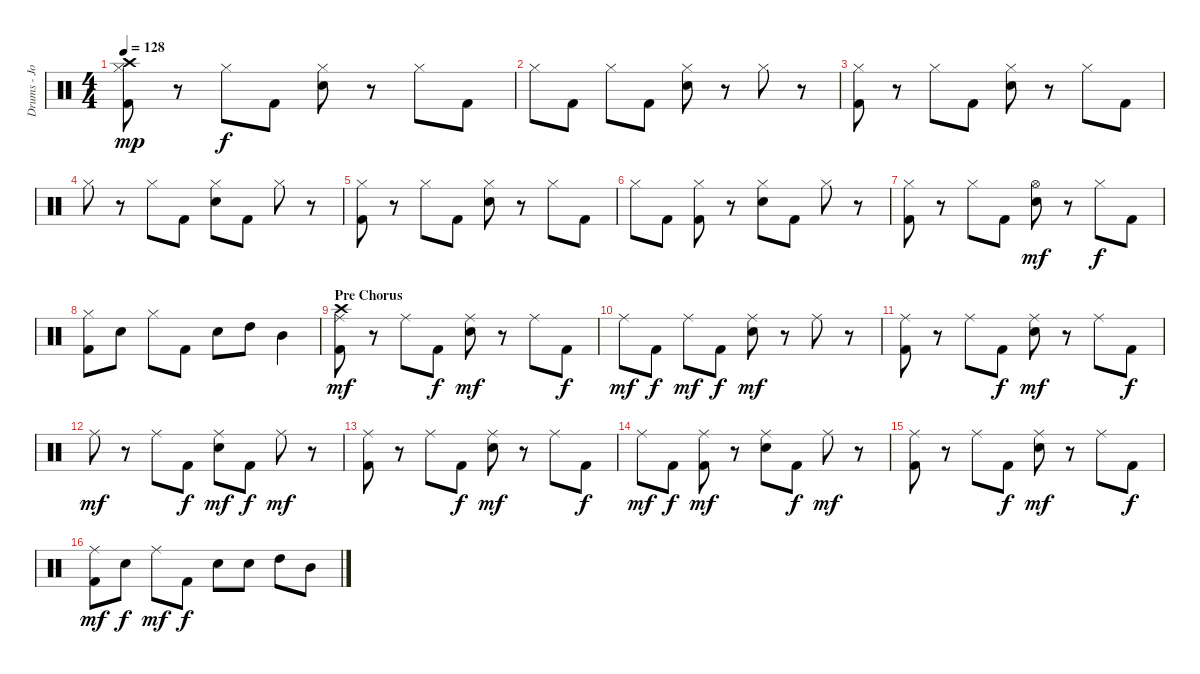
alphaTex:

\track ("Drums - John Humphrey" "Drums - Jo") {instrument percussion}
\staff {score}
\articulation defaults
\ts (4 4)
\tempo 128
\clef neutral
\ks c
("Crash high (hit)" "Hi-Hat (closed)" "Kick (hit) 2").8{dy mp} r.8 "Hi-Hat (closed)".8{dy f} "Kick (hit) 2".8 ("Hi-Hat (closed)" "Electric Snare (hit)").8 r.8 "Hi-Hat (closed)".8 "Kick (hit) 2".8 |
"Hi-Hat (closed)".8 "Kick (hit) 2".8 "Hi-Hat (closed)".8 "Kick (hit) 2".8 ("Hi-Hat (closed)" "Electric Snare (hit)").8 r.8 "Hi-Hat (closed)".8 r.8 |
("Hi-Hat (closed)" "Kick (hit) 2").8 r.8 "Hi-Hat (closed)".8 "Kick (hit) 2".8 ("Hi-Hat (closed)" "Electric Snare (hit)").8 r.8 "Hi-Hat (closed)".8 "Kick (hit) 2".8 |
"Hi-Hat (closed)".8 r.8 "Hi-Hat (closed)".8 "Kick (hit) 2".8 ("Hi-Hat (closed)" "Electric Snare (hit)").8 "Kick (hit) 2".8 "Hi-Hat (closed)".8 r.8 |
("Hi-Hat (closed)" "Kick (hit) 2").8 r.8 "Hi-Hat (closed)".8 "Kick (hit) 2".8 ("Hi-Hat (closed)" "Electric Snare (hit)").8 r.8 "Hi-Hat (closed)".8 "Kick (hit) 2".8 |
"Hi-Hat (closed)".8 "Kick (hit) 2".8 ("Hi-Hat (closed)" "Kick (hit) 2").8 r.8 ("Hi-Hat (closed)" "Electric Snare (hit)").8 "Kick (hit) 2".8 "Hi-Hat (closed)".8 r.8 |
("Hi-Hat (closed)" "Kick (hit) 2").8 r.8 "Hi-Hat (closed)".8 "Kick (hit) 2".8 ("Hi-Hat (open)" "Electric Snare (hit)").8{dy mf} r.8 "Hi-Hat (closed)".8{dy f} "Kick (hit) 2".8 |
("Hi-Hat (closed)" "Kick (hit) 2").8 "Electric Snare (hit)".8 "Hi-Hat (closed)".8 "Kick (hit) 2".8 "Electric Snare (hit)".8 "High Tom (hit)".8 "Mid Tom (hit)".4 |
\section ("" "Pre Chorus")
("Crash high (hit)" "Ride (middle)" "Kick (hit) 2").8{dy mf} r.8 "Ride (middle)".8 "Kick (hit) 2".8{dy f} ("Ride (middle)" "Electric Snare (hit)").8{dy mf} r.8 "Ride (middle)".8 "Kick (hit) 2".8{dy f} |
"Ride (middle)".8{dy mf} "Kick (hit) 2".8{dy f} "Ride (middle)".8{dy mf} "Kick (hit) 2".8{dy f} ("Ride (middle)" "Electric Snare (hit)").8{dy mf} r.8 "Ride (middle)".8 r.8 |
("Ride (middle)" "Kick (hit) 2").8 r.8 "Ride (middle)".8 "Kick (hit) 2".8{dy f} ("Ride (middle)" "Electric Snare (hit)").8{dy mf} r.8 "Ride (middle)".8 "Kick (hit) 2".8{dy f} |
"Ride (middle)".8{dy mf} r.8 "Ride (middle)".8 "Kick (hit) 2".8{dy f} ("Ride (middle)" "Electric Snare (hit)").8{dy mf} "Kick (hit) 2".8{dy f} "Ride (middle)".8{dy mf} r.8 |
("Ride (middle)" "Kick (hit) 2").8 r.8 "Ride (middle)".8 "Kick (hit) 2".8{dy f} ("Ride (middle)" "Electric Snare (hit)").8{dy mf} r.8 "Ride (middle)".8 "Kick (hit) 2".8{dy f} |
"Ride (middle)".8{dy mf} "Kick (hit) 2".8{dy f} ("Ride (middle)" "Kick (hit) 2").8{dy mf} r.8 ("Ride (middle)" "Electric Snare (hit)").8 "Kick (hit) 2".8{dy f} "Ride (middle)".8{dy mf} r.8 |
("Ride (middle)" "Kick (hit) 2").8 r.8 "Ride (middle)".8 "Kick (hit) 2".8{dy f} ("Ride (middle)" "Electric Snare (hit)").8{dy mf} r.8 "Ride (middle)".8 "Kick (hit) 2".8{dy f} |
("Ride (middle)" "Kick (hit) 2").8{dy mf} "Electric Snare (hit)".8{dy f} "Ride (middle)".8{dy mf} "Kick (hit) 2".8{dy f} "Electric Snare (hit)".8 "Electric Snare (hit)".8 "High Tom (hit)".8 "Mid Tom (hit)".8
